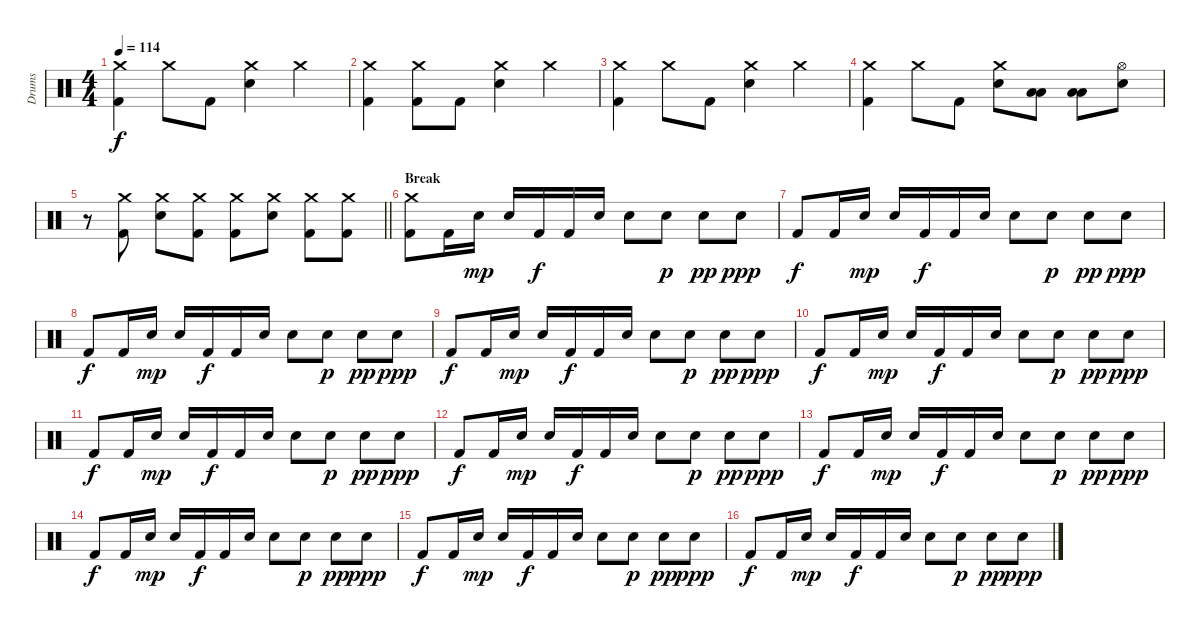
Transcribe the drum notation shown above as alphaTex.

\track ("Drums" "Drums") {instrument percussion}
\staff {score}
\articulation defaults
\ts (4 4)
\tempo 114
\clef neutral
\ks c
("Crash medium (hit)" "Kick (hit) 2").4{dy f} "Crash medium (hit)".8 "Kick (hit) 2".8 ("Crash medium (hit)" "Electric Snare (hit)").4 "Crash medium (hit)".4 |
("Crash medium (hit)" "Kick (hit) 2").4 ("Crash medium (hit)" "Kick (hit) 2").8 "Kick (hit) 2".8 ("Crash medium (hit)" "Electric Snare (hit)").4 "Crash medium (hit)".4 |
("Crash medium (hit)" "Kick (hit) 2").4 "Crash medium (hit)".8 "Kick (hit) 2".8 ("Crash medium (hit)" "Electric Snare (hit)").4 "Crash medium (hit)".4 |
("Crash medium (hit)" "Kick (hit) 2").4 "Crash medium (hit)".8 "Kick (hit) 2".8 ("Crash medium (hit)" "Electric Snare (hit)").8 ("Low Floor Tom (hit)" "Low Floor Tom (hit)").8 ("Low Floor Tom (hit)" "Low Floor Tom (hit)").8 ("Hi-Hat (open)" "Electric Snare (hit)").8 |
\barLineRight lightlight
r.8 ("Crash medium (hit)" "Kick (hit) 2").8 ("Crash medium (hit)" "Electric Snare (hit)").8 ("Crash medium (hit)" "Kick (hit) 2").8 ("Crash medium (hit)" "Kick (hit) 2").8 ("Crash medium (hit)" "Electric Snare (hit)").8 ("Crash medium (hit)" "Kick (hit) 2").8 ("Crash medium (hit)" "Kick (hit) 2").8 |
\section ("" "Break")
("Crash medium (hit)" "Kick (hit) 2").8 "Kick (hit) 2".16 "Electric Snare (hit)".16{dy mp} "Electric Snare (hit)".16 "Kick (hit) 2".16{dy f} "Kick (hit) 2".16 "Electric Snare (hit)".16 "Electric Snare (hit)".8 "Electric Snare (hit)".8{dy p} "Electric Snare (hit)".8{dy pp} "Electric Snare (hit)".8{dy ppp} |
"Kick (hit) 2".8{dy f} "Kick (hit) 2".16 "Electric Snare (hit)".16{dy mp} "Electric Snare (hit)".16 "Kick (hit) 2".16{dy f} "Kick (hit) 2".16 "Electric Snare (hit)".16 "Electric Snare (hit)".8 "Electric Snare (hit)".8{dy p} "Electric Snare (hit)".8{dy pp} "Electric Snare (hit)".8{dy ppp} |
"Kick (hit) 2".8{dy f} "Kick (hit) 2".16 "Electric Snare (hit)".16{dy mp} "Electric Snare (hit)".16 "Kick (hit) 2".16{dy f} "Kick (hit) 2".16 "Electric Snare (hit)".16 "Electric Snare (hit)".8 "Electric Snare (hit)".8{dy p} "Electric Snare (hit)".8{dy pp} "Electric Snare (hit)".8{dy ppp} |
"Kick (hit) 2".8{dy f} "Kick (hit) 2".16 "Electric Snare (hit)".16{dy mp} "Electric Snare (hit)".16 "Kick (hit) 2".16{dy f} "Kick (hit) 2".16 "Electric Snare (hit)".16 "Electric Snare (hit)".8 "Electric Snare (hit)".8{dy p} "Electric Snare (hit)".8{dy pp} "Electric Snare (hit)".8{dy ppp} |
"Kick (hit) 2".8{dy f} "Kick (hit) 2".16 "Electric Snare (hit)".16{dy mp} "Electric Snare (hit)".16 "Kick (hit) 2".16{dy f} "Kick (hit) 2".16 "Electric Snare (hit)".16 "Electric Snare (hit)".8 "Electric Snare (hit)".8{dy p} "Electric Snare (hit)".8{dy pp} "Electric Snare (hit)".8{dy ppp} |
"Kick (hit) 2".8{dy f} "Kick (hit) 2".16 "Electric Snare (hit)".16{dy mp} "Electric Snare (hit)".16 "Kick (hit) 2".16{dy f} "Kick (hit) 2".16 "Electric Snare (hit)".16 "Electric Snare (hit)".8 "Electric Snare (hit)".8{dy p} "Electric Snare (hit)".8{dy pp} "Electric Snare (hit)".8{dy ppp} |
"Kick (hit) 2".8{dy f} "Kick (hit) 2".16 "Electric Snare (hit)".16{dy mp} "Electric Snare (hit)".16 "Kick (hit) 2".16{dy f} "Kick (hit) 2".16 "Electric Snare (hit)".16 "Electric Snare (hit)".8 "Electric Snare (hit)".8{dy p} "Electric Snare (hit)".8{dy pp} "Electric Snare (hit)".8{dy ppp} |
"Kick (hit) 2".8{dy f} "Kick (hit) 2".16 "Electric Snare (hit)".16{dy mp} "Electric Snare (hit)".16 "Kick (hit) 2".16{dy f} "Kick (hit) 2".16 "Electric Snare (hit)".16 "Electric Snare (hit)".8 "Electric Snare (hit)".8{dy p} "Electric Snare (hit)".8{dy pp} "Electric Snare (hit)".8{dy ppp} |
"Kick (hit) 2".8{dy f} "Kick (hit) 2".16 "Electric Snare (hit)".16{dy mp} "Electric Snare (hit)".16 "Kick (hit) 2".16{dy f} "Kick (hit) 2".16 "Electric Snare (hit)".16 "Electric Snare (hit)".8 "Electric Snare (hit)".8{dy p} "Electric Snare (hit)".8{dy pp} "Electric Snare (hit)".8{dy ppp} |
"Kick (hit) 2".8{dy f} "Kick (hit) 2".16 "Electric Snare (hit)".16{dy mp} "Electric Snare (hit)".16 "Kick (hit) 2".16{dy f} "Kick (hit) 2".16 "Electric Snare (hit)".16 "Electric Snare (hit)".8 "Electric Snare (hit)".8{dy p} "Electric Snare (hit)".8{dy pp} "Electric Snare (hit)".8{dy ppp} |
"Kick (hit) 2".8{dy f} "Kick (hit) 2".16 "Electric Snare (hit)".16{dy mp} "Electric Snare (hit)".16 "Kick (hit) 2".16{dy f} "Kick (hit) 2".16 "Electric Snare (hit)".16 "Electric Snare (hit)".8 "Electric Snare (hit)".8{dy p} "Electric Snare (hit)".8{dy pp} "Electric Snare (hit)".8{dy ppp}
